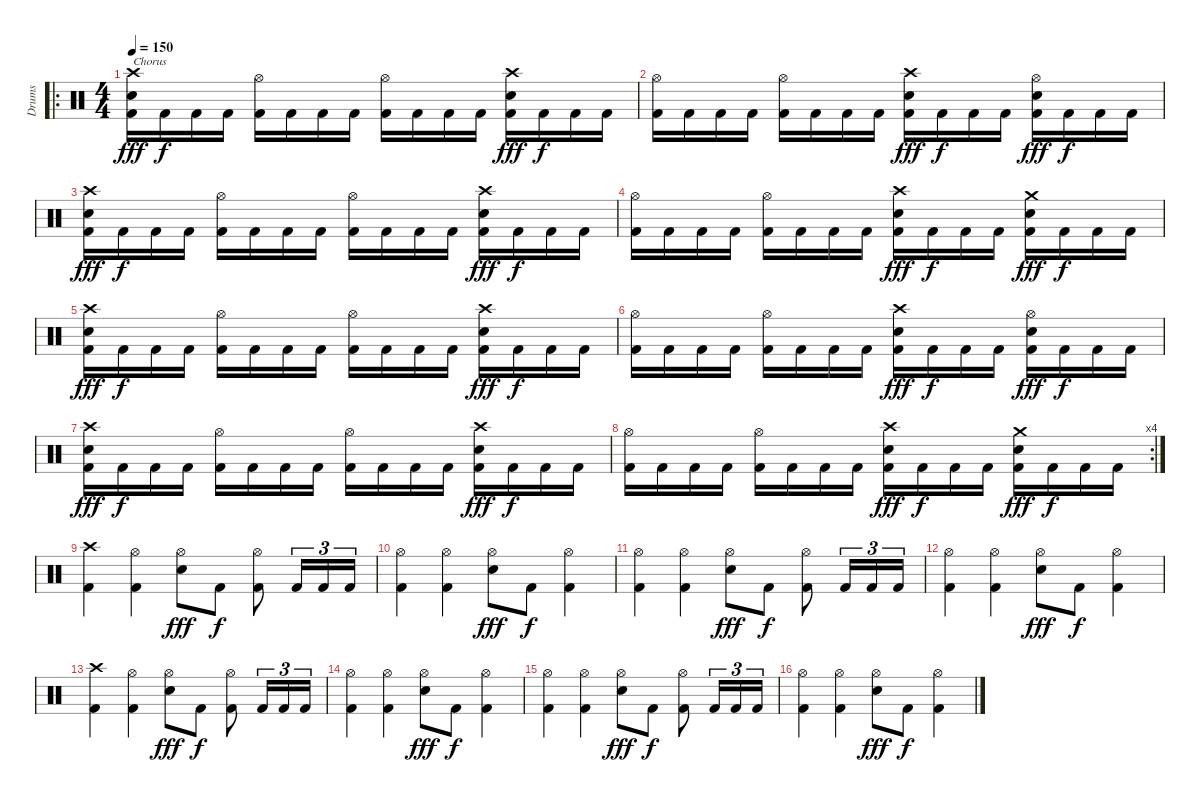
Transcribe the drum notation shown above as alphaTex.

\track ("Drums" "Drums") {instrument percussion}
\staff {score}
\articulation defaults
\ro
\ts (4 4)
\tempo 150
\clef neutral
\ks c
("Crash high (hit)" "Snare (hit) 2" "Kick (hit) 2").16{txt "Chorus" dy fff} "Kick (hit) 2".16{dy f} "Kick (hit) 2".16 "Kick (hit) 2".16 ("Hi-Hat (open)" "Kick (hit) 2").16 "Kick (hit) 2".16 "Kick (hit) 2".16 "Kick (hit) 2".16 ("Hi-Hat (open)" "Kick (hit) 2").16 "Kick (hit) 2".16 "Kick (hit) 2".16 "Kick (hit) 2".16 ("Crash high (hit)" "Snare (hit) 2" "Kick (hit) 2").16{dy fff} "Kick (hit) 2".16{dy f} "Kick (hit) 2".16 "Kick (hit) 2".16 |
("Hi-Hat (open)" "Kick (hit) 2").16 "Kick (hit) 2".16 "Kick (hit) 2".16 "Kick (hit) 2".16 ("Hi-Hat (open)" "Kick (hit) 2").16 "Kick (hit) 2".16 "Kick (hit) 2".16 "Kick (hit) 2".16 ("Crash high (hit)" "Snare (hit) 2" "Kick (hit) 2").16{dy fff} "Kick (hit) 2".16{dy f} "Kick (hit) 2".16 "Kick (hit) 2".16 ("Hi-Hat (open)" "Snare (hit) 2" "Kick (hit) 2").16{dy fff} "Kick (hit) 2".16{dy f} "Kick (hit) 2".16 "Kick (hit) 2".16 |
("Crash high (hit)" "Snare (hit) 2" "Kick (hit) 2").16{dy fff} "Kick (hit) 2".16{dy f} "Kick (hit) 2".16 "Kick (hit) 2".16 ("Hi-Hat (open)" "Kick (hit) 2").16 "Kick (hit) 2".16 "Kick (hit) 2".16 "Kick (hit) 2".16 ("Hi-Hat (open)" "Kick (hit) 2").16 "Kick (hit) 2".16 "Kick (hit) 2".16 "Kick (hit) 2".16 ("Crash high (hit)" "Snare (hit) 2" "Kick (hit) 2").16{dy fff} "Kick (hit) 2".16{dy f} "Kick (hit) 2".16 "Kick (hit) 2".16 |
("Hi-Hat (open)" "Kick (hit) 2").16 "Kick (hit) 2".16 "Kick (hit) 2".16 "Kick (hit) 2".16 ("Hi-Hat (open)" "Kick (hit) 2").16 "Kick (hit) 2".16 "Kick (hit) 2".16 "Kick (hit) 2".16 ("Crash high (hit)" "Snare (hit) 2" "Kick (hit) 2").16{dy fff} "Kick (hit) 2".16{dy f} "Kick (hit) 2".16 "Kick (hit) 2".16 ("Crash medium (hit)" "Snare (hit) 2" "Kick (hit) 2").16{dy fff} "Kick (hit) 2".16{dy f} "Kick (hit) 2".16 "Kick (hit) 2".16 |
("Crash high (hit)" "Snare (hit) 2" "Kick (hit) 2").16{dy fff} "Kick (hit) 2".16{dy f} "Kick (hit) 2".16 "Kick (hit) 2".16 ("Hi-Hat (open)" "Kick (hit) 2").16 "Kick (hit) 2".16 "Kick (hit) 2".16 "Kick (hit) 2".16 ("Hi-Hat (open)" "Kick (hit) 2").16 "Kick (hit) 2".16 "Kick (hit) 2".16 "Kick (hit) 2".16 ("Crash high (hit)" "Snare (hit) 2" "Kick (hit) 2").16{dy fff} "Kick (hit) 2".16{dy f} "Kick (hit) 2".16 "Kick (hit) 2".16 |
("Hi-Hat (open)" "Kick (hit) 2").16 "Kick (hit) 2".16 "Kick (hit) 2".16 "Kick (hit) 2".16 ("Hi-Hat (open)" "Kick (hit) 2").16 "Kick (hit) 2".16 "Kick (hit) 2".16 "Kick (hit) 2".16 ("Crash high (hit)" "Snare (hit) 2" "Kick (hit) 2").16{dy fff} "Kick (hit) 2".16{dy f} "Kick (hit) 2".16 "Kick (hit) 2".16 ("Hi-Hat (open)" "Snare (hit) 2" "Kick (hit) 2").16{dy fff} "Kick (hit) 2".16{dy f} "Kick (hit) 2".16 "Kick (hit) 2".16 |
("Crash high (hit)" "Snare (hit) 2" "Kick (hit) 2").16{dy fff} "Kick (hit) 2".16{dy f} "Kick (hit) 2".16 "Kick (hit) 2".16 ("Hi-Hat (open)" "Kick (hit) 2").16 "Kick (hit) 2".16 "Kick (hit) 2".16 "Kick (hit) 2".16 ("Hi-Hat (open)" "Kick (hit) 2").16 "Kick (hit) 2".16 "Kick (hit) 2".16 "Kick (hit) 2".16 ("Crash high (hit)" "Snare (hit) 2" "Kick (hit) 2").16{dy fff} "Kick (hit) 2".16{dy f} "Kick (hit) 2".16 "Kick (hit) 2".16 |
\rc 4
("Hi-Hat (open)" "Kick (hit) 2").16 "Kick (hit) 2".16 "Kick (hit) 2".16 "Kick (hit) 2".16 ("Hi-Hat (open)" "Kick (hit) 2").16 "Kick (hit) 2".16 "Kick (hit) 2".16 "Kick (hit) 2".16 ("Crash high (hit)" "Snare (hit) 2" "Kick (hit) 2").16{dy fff} "Kick (hit) 2".16{dy f} "Kick (hit) 2".16 "Kick (hit) 2".16 ("Crash medium (hit)" "Snare (hit) 2" "Kick (hit) 2").16{dy fff} "Kick (hit) 2".16{dy f} "Kick (hit) 2".16 "Kick (hit) 2".16 |
("Crash high (hit)" "Kick (hit) 2").4 ("Hi-Hat (open)" "Kick (hit) 2").4 ("Hi-Hat (open)" "Snare (hit) 2").8{dy fff} "Kick (hit) 2".8{dy f} ("Hi-Hat (open)" "Kick (hit) 2").8 "Kick (hit) 2".16{tu (3 2)} "Kick (hit) 2".16{tu (3 2)} "Kick (hit) 2".16{tu (3 2)} |
("Hi-Hat (open)" "Kick (hit) 2").4 ("Hi-Hat (open)" "Kick (hit) 2").4 ("Hi-Hat (open)" "Snare (hit) 2").8{dy fff} "Kick (hit) 2".8{dy f} ("Hi-Hat (open)" "Kick (hit) 2").4 |
("Hi-Hat (open)" "Kick (hit) 2").4 ("Hi-Hat (open)" "Kick (hit) 2").4 ("Hi-Hat (open)" "Snare (hit) 2").8{dy fff} "Kick (hit) 2".8{dy f} ("Hi-Hat (open)" "Kick (hit) 2").8 "Kick (hit) 2".16{tu (3 2)} "Kick (hit) 2".16{tu (3 2)} "Kick (hit) 2".16{tu (3 2)} |
("Hi-Hat (open)" "Kick (hit) 2").4 ("Hi-Hat (open)" "Kick (hit) 2").4 ("Hi-Hat (open)" "Snare (hit) 2").8{dy fff} "Kick (hit) 2".8{dy f} ("Hi-Hat (open)" "Kick (hit) 2").4 |
("Crash high (hit)" "Kick (hit) 2").4 ("Hi-Hat (open)" "Kick (hit) 2").4 ("Hi-Hat (open)" "Snare (hit) 2").8{dy fff} "Kick (hit) 2".8{dy f} ("Hi-Hat (open)" "Kick (hit) 2").8 "Kick (hit) 2".16{tu (3 2)} "Kick (hit) 2".16{tu (3 2)} "Kick (hit) 2".16{tu (3 2)} |
("Hi-Hat (open)" "Kick (hit) 2").4 ("Hi-Hat (open)" "Kick (hit) 2").4 ("Hi-Hat (open)" "Snare (hit) 2").8{dy fff} "Kick (hit) 2".8{dy f} ("Hi-Hat (open)" "Kick (hit) 2").4 |
("Hi-Hat (open)" "Kick (hit) 2").4 ("Hi-Hat (open)" "Kick (hit) 2").4 ("Hi-Hat (open)" "Snare (hit) 2").8{dy fff} "Kick (hit) 2".8{dy f} ("Hi-Hat (open)" "Kick (hit) 2").8 "Kick (hit) 2".16{tu (3 2)} "Kick (hit) 2".16{tu (3 2)} "Kick (hit) 2".16{tu (3 2)} |
("Hi-Hat (open)" "Kick (hit) 2").4 ("Hi-Hat (open)" "Kick (hit) 2").4 ("Hi-Hat (open)" "Snare (hit) 2").8{dy fff} "Kick (hit) 2".8{dy f} ("Hi-Hat (open)" "Kick (hit) 2").4
